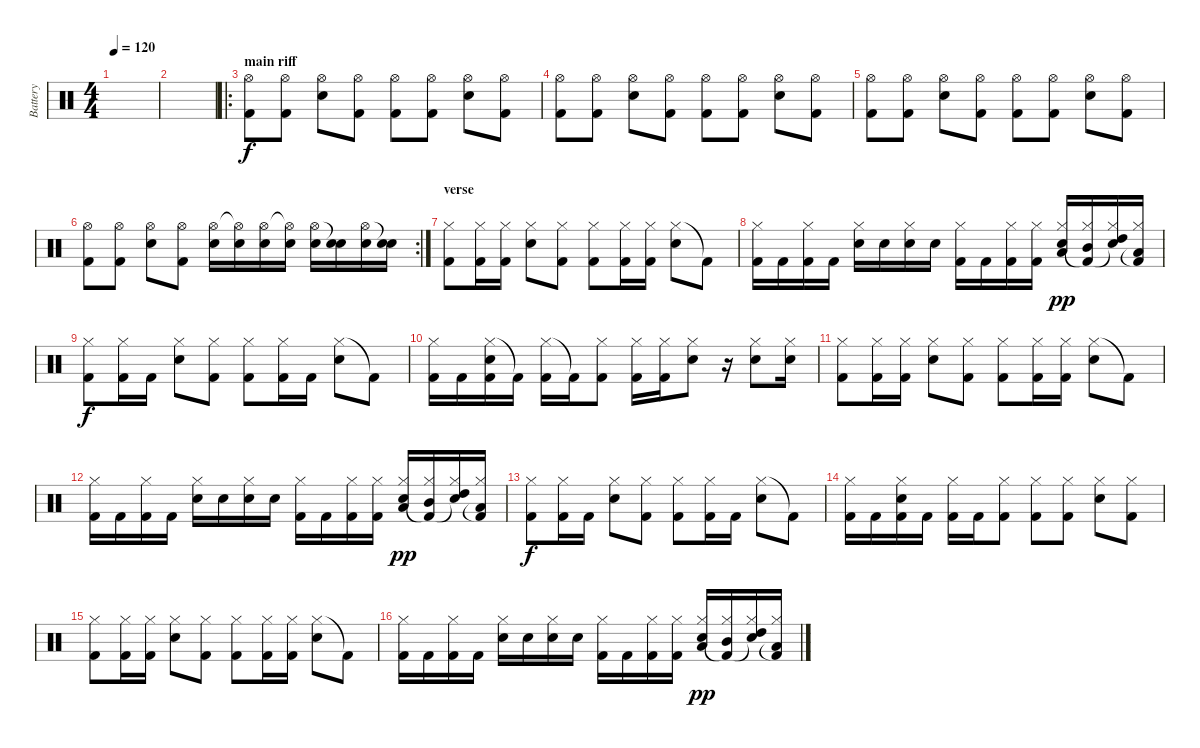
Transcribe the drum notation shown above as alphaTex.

\track ("Battery" "Battery") {instrument percussion}
\staff {score}
\articulation defaults
\ts (4 4)
\tempo 120
\clef neutral
\ks c
|
|
\ro
\section ("" "main riff")
("Hi-Hat (open)" "Kick (hit) 2").8 ("Hi-Hat (open)" "Kick (hit) 2").8 ("Hi-Hat (open)" "Electric Snare (hit)").8 ("Hi-Hat (open)" "Kick (hit) 2").8 ("Hi-Hat (open)" "Kick (hit) 2").8 ("Hi-Hat (open)" "Kick (hit) 2").8 ("Hi-Hat (open)" "Electric Snare (hit)").8 ("Hi-Hat (open)" "Kick (hit) 2").8 |
("Hi-Hat (open)" "Kick (hit) 2").8 ("Hi-Hat (open)" "Kick (hit) 2").8 ("Hi-Hat (open)" "Electric Snare (hit)").8 ("Hi-Hat (open)" "Kick (hit) 2").8 ("Hi-Hat (open)" "Kick (hit) 2").8 ("Hi-Hat (open)" "Kick (hit) 2").8 ("Hi-Hat (open)" "Electric Snare (hit)").8 ("Hi-Hat (open)" "Kick (hit) 2").8 |
("Hi-Hat (open)" "Kick (hit) 2").8 ("Hi-Hat (open)" "Kick (hit) 2").8 ("Hi-Hat (open)" "Electric Snare (hit)").8 ("Hi-Hat (open)" "Kick (hit) 2").8 ("Hi-Hat (open)" "Kick (hit) 2").8 ("Hi-Hat (open)" "Kick (hit) 2").8 ("Hi-Hat (open)" "Electric Snare (hit)").8 ("Hi-Hat (open)" "Kick (hit) 2").8 |
\rc 2
("Hi-Hat (open)" "Kick (hit) 2").8 ("Hi-Hat (open)" "Kick (hit) 2").8 ("Hi-Hat (open)" "Electric Snare (hit)").8 ("Hi-Hat (open)" "Kick (hit) 2").8 ("Hi-Hat (open)" "Electric Snare (hit)").16 ("Hi-Hat (open)"{t} "Electric Snare (hit)").16 ("Hi-Hat (open)" "Electric Snare (hit)").16 ("Hi-Hat (open)"{t} "Electric Snare (hit)").16 ("Hi-Hat (open)" "Electric Snare (hit)").16 ("Snare (hit)"{t} "Electric Snare (hit)").16 ("Hi-Hat (open)" "Electric Snare (hit)").16 ("Snare (hit)"{t} "Electric Snare (hit)").16 |
\section ("" "verse")
("Hi-Hat (closed)" "Kick (hit) 2").8 ("Hi-Hat (closed)" "Kick (hit) 2").16 ("Hi-Hat (closed)" "Kick (hit) 2").16 ("Hi-Hat (closed)" "Electric Snare (hit)").8 ("Hi-Hat (closed)" "Kick (hit) 2").8 ("Hi-Hat (closed)" "Kick (hit) 2").8 ("Hi-Hat (closed)" "Kick (hit) 2").16 ("Hi-Hat (closed)" "Kick (hit) 2").16 ("Hi-Hat (closed)" "Electric Snare (hit)").8 "Kick (hit) 2"{t}.8 |
("Hi-Hat (closed)" "Kick (hit) 2").16 "Kick (hit) 2".16 ("Hi-Hat (closed)" "Kick (hit) 2").16 "Kick (hit) 2".16 ("Hi-Hat (closed)" "Electric Snare (hit)").16 "Electric Snare (hit)".16 ("Hi-Hat (closed)" "Electric Snare (hit)").16 "Electric Snare (hit)".16 ("Hi-Hat (closed)" "Kick (hit) 2").16 "Kick (hit) 2".16 ("Hi-Hat (closed)" "Kick (hit) 2").16 ("Hi-Hat (closed)" "Kick (hit) 2").16 ("Hi-Hat (closed)" "Low Tom (hit)" "Electric Snare (hit)").16{dy pp} ("Hi-Hat (closed)" "Mid Tom (hit)" "Kick (hit) 2"{t}).16 ("Hi-Hat (closed)" "High Tom (hit)" "Snare (hit)"{t}).16 ("Hi-Hat (closed)" "Low Tom (hit)" "Kick (hit) 2"{t}).16 |
("Hi-Hat (closed)" "Kick (hit) 2").8{dy f} ("Hi-Hat (closed)" "Kick (hit) 2").16 "Kick (hit) 2".16 ("Hi-Hat (closed)" "Electric Snare (hit)").8 ("Hi-Hat (closed)" "Kick (hit) 2").8 ("Hi-Hat (closed)" "Kick (hit) 2").8 ("Hi-Hat (closed)" "Kick (hit) 2").16 "Kick (hit) 2".16 ("Hi-Hat (closed)" "Electric Snare (hit)").8 "Kick (hit) 2"{t}.8 |
("Hi-Hat (closed)" "Kick (hit) 2").16 "Kick (hit) 2".16 ("Hi-Hat (closed)" "Electric Snare (hit)" "Kick (hit) 2").16 "Kick (hit) 2"{t}.16 ("Hi-Hat (closed)" "Kick (hit) 2").16 "Kick (hit) 2"{t}.16 ("Hi-Hat (closed)" "Kick (hit) 2").8 ("Hi-Hat (closed)" "Kick (hit) 2").16 ("Hi-Hat (closed)" "Kick (hit) 2").16 ("Hi-Hat (closed)" "Electric Snare (hit)").8 r.16 ("Hi-Hat (closed)" "Electric Snare (hit)").8 ("Hi-Hat (closed)" "Electric Snare (hit)").16 |
("Hi-Hat (closed)" "Kick (hit) 2").8 ("Hi-Hat (closed)" "Kick (hit) 2").16 ("Hi-Hat (closed)" "Kick (hit) 2").16 ("Hi-Hat (closed)" "Electric Snare (hit)").8 ("Hi-Hat (closed)" "Kick (hit) 2").8 ("Hi-Hat (closed)" "Kick (hit) 2").8 ("Hi-Hat (closed)" "Kick (hit) 2").16 ("Hi-Hat (closed)" "Kick (hit) 2").16 ("Hi-Hat (closed)" "Electric Snare (hit)").8 "Kick (hit) 2"{t}.8 |
("Hi-Hat (closed)" "Kick (hit) 2").16 "Kick (hit) 2".16 ("Hi-Hat (closed)" "Kick (hit) 2").16 "Kick (hit) 2".16 ("Hi-Hat (closed)" "Electric Snare (hit)").16 "Electric Snare (hit)".16 ("Hi-Hat (closed)" "Electric Snare (hit)").16 "Electric Snare (hit)".16 ("Hi-Hat (closed)" "Kick (hit) 2").16 "Kick (hit) 2".16 ("Hi-Hat (closed)" "Kick (hit) 2").16 ("Hi-Hat (closed)" "Kick (hit) 2").16 ("Hi-Hat (closed)" "Low Tom (hit)" "Electric Snare (hit)").16{dy pp} ("Hi-Hat (closed)" "Mid Tom (hit)" "Kick (hit) 2"{t}).16 ("Hi-Hat (closed)" "High Tom (hit)" "Snare (hit)"{t}).16 ("Hi-Hat (closed)" "Low Tom (hit)" "Kick (hit) 2"{t}).16 |
("Hi-Hat (closed)" "Kick (hit) 2").8{dy f} ("Hi-Hat (closed)" "Kick (hit) 2").16 "Kick (hit) 2".16 ("Hi-Hat (closed)" "Electric Snare (hit)").8 ("Hi-Hat (closed)" "Kick (hit) 2").8 ("Hi-Hat (closed)" "Kick (hit) 2").8 ("Hi-Hat (closed)" "Kick (hit) 2").16 "Kick (hit) 2".16 ("Hi-Hat (closed)" "Electric Snare (hit)").8 "Kick (hit) 2"{t}.8 |
("Hi-Hat (closed)" "Kick (hit) 2").16 "Kick (hit) 2".16 ("Hi-Hat (closed)" "Electric Snare (hit)" "Kick (hit) 2").16 "Kick (hit) 2".16 ("Hi-Hat (closed)" "Kick (hit) 2").16 "Kick (hit) 2".16 ("Hi-Hat (closed)" "Kick (hit) 2").8 ("Hi-Hat (closed)" "Kick (hit) 2").8 ("Hi-Hat (closed)" "Kick (hit) 2").8 ("Hi-Hat (closed)" "Electric Snare (hit)").8 ("Hi-Hat (closed)" "Kick (hit) 2").8 |
("Hi-Hat (closed)" "Kick (hit) 2").8 ("Hi-Hat (closed)" "Kick (hit) 2").16 ("Hi-Hat (closed)" "Kick (hit) 2").16 ("Hi-Hat (closed)" "Electric Snare (hit)").8 ("Hi-Hat (closed)" "Kick (hit) 2").8 ("Hi-Hat (closed)" "Kick (hit) 2").8 ("Hi-Hat (closed)" "Kick (hit) 2").16 ("Hi-Hat (closed)" "Kick (hit) 2").16 ("Hi-Hat (closed)" "Electric Snare (hit)").8 "Kick (hit) 2"{t}.8 |
("Hi-Hat (closed)" "Kick (hit) 2").16 "Kick (hit) 2".16 ("Hi-Hat (closed)" "Kick (hit) 2").16 "Kick (hit) 2".16 ("Hi-Hat (closed)" "Electric Snare (hit)").16 "Electric Snare (hit)".16 ("Hi-Hat (closed)" "Electric Snare (hit)").16 "Electric Snare (hit)".16 ("Hi-Hat (closed)" "Kick (hit) 2").16 "Kick (hit) 2".16 ("Hi-Hat (closed)" "Kick (hit) 2").16 ("Hi-Hat (closed)" "Kick (hit) 2").16 ("Hi-Hat (closed)" "Low Tom (hit)" "Electric Snare (hit)").16{dy pp} ("Hi-Hat (closed)" "Mid Tom (hit)" "Kick (hit) 2"{t}).16 ("Hi-Hat (closed)" "High Tom (hit)" "Snare (hit)"{t}).16 ("Hi-Hat (closed)" "Low Tom (hit)" "Kick (hit) 2"{t}).16
